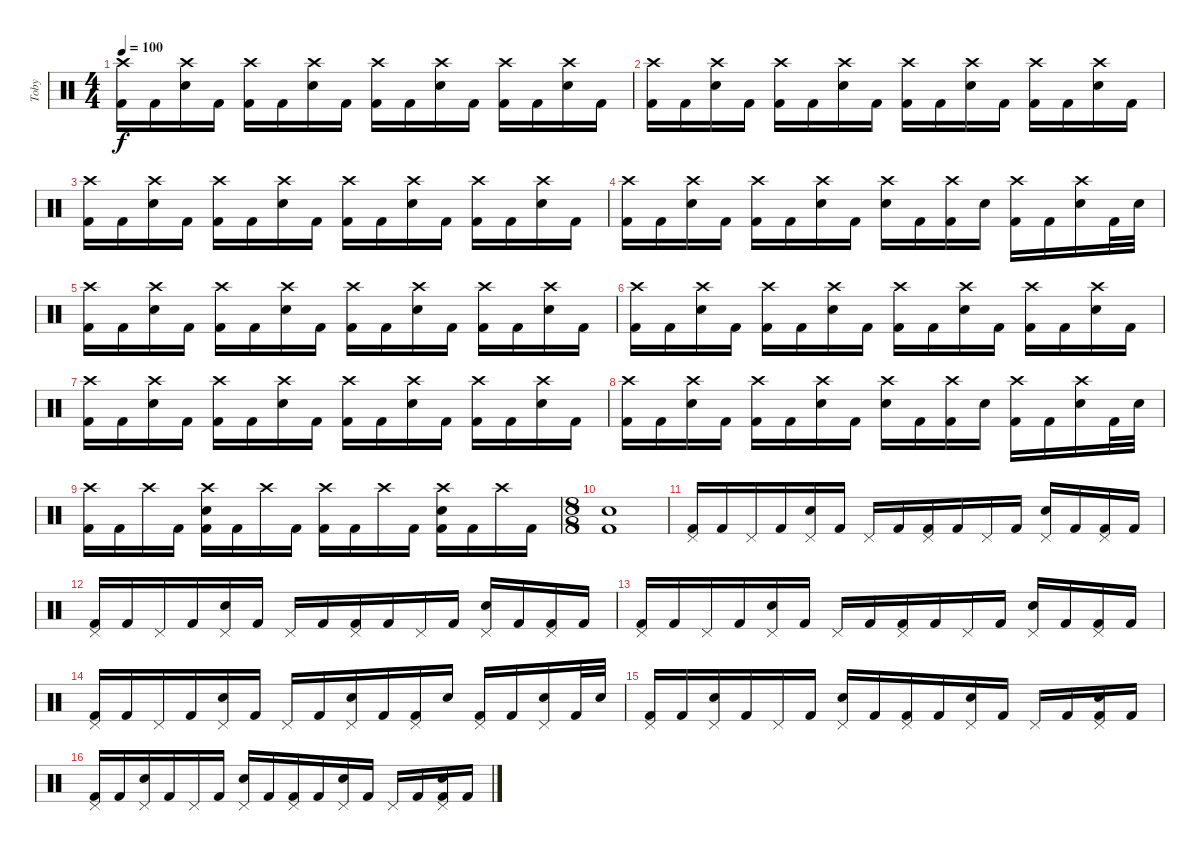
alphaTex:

\track ("Toby" "Toby") {instrument percussion}
\staff {score}
\articulation defaults
\ts (4 4)
\tempo 100
\clef neutral
\ks c
("Crash high (hit)" "Kick (hit) 2").16{dy f} "Kick (hit) 2".16 ("Crash high (hit)" "Electric Snare (hit)").16 "Kick (hit) 2".16 ("Crash high (hit)" "Kick (hit) 2").16 "Kick (hit) 2".16 ("Crash high (hit)" "Electric Snare (hit)").16 "Kick (hit) 2".16 ("Crash high (hit)" "Kick (hit) 2").16 "Kick (hit) 2".16 ("Crash high (hit)" "Electric Snare (hit)").16 "Kick (hit) 2".16 ("Crash high (hit)" "Kick (hit) 2").16 "Kick (hit) 2".16 ("Crash high (hit)" "Electric Snare (hit)").16 "Kick (hit) 2".16 |
("Crash high (hit)" "Kick (hit) 2").16 "Kick (hit) 2".16 ("Crash high (hit)" "Electric Snare (hit)").16 "Kick (hit) 2".16 ("Crash high (hit)" "Kick (hit) 2").16 "Kick (hit) 2".16 ("Crash high (hit)" "Electric Snare (hit)").16 "Kick (hit) 2".16 ("Crash high (hit)" "Kick (hit) 2").16 "Kick (hit) 2".16 ("Crash high (hit)" "Electric Snare (hit)").16 "Kick (hit) 2".16 ("Crash high (hit)" "Kick (hit) 2").16 "Kick (hit) 2".16 ("Crash high (hit)" "Electric Snare (hit)").16 "Kick (hit) 2".16 |
("Crash high (hit)" "Kick (hit) 2").16 "Kick (hit) 2".16 ("Crash high (hit)" "Electric Snare (hit)").16 "Kick (hit) 2".16 ("Crash high (hit)" "Kick (hit) 2").16 "Kick (hit) 2".16 ("Crash high (hit)" "Electric Snare (hit)").16 "Kick (hit) 2".16 ("Crash high (hit)" "Kick (hit) 2").16 "Kick (hit) 2".16 ("Crash high (hit)" "Electric Snare (hit)").16 "Kick (hit) 2".16 ("Crash high (hit)" "Kick (hit) 2").16 "Kick (hit) 2".16 ("Crash high (hit)" "Electric Snare (hit)").16 "Kick (hit) 2".16 |
("Crash high (hit)" "Kick (hit) 2").16 "Kick (hit) 2".16 ("Crash high (hit)" "Electric Snare (hit)").16 "Kick (hit) 2".16 ("Crash high (hit)" "Kick (hit) 2").16 "Kick (hit) 2".16 ("Crash high (hit)" "Electric Snare (hit)").16 "Kick (hit) 2".16 ("Crash high (hit)" "Electric Snare (hit)").16 "Kick (hit) 2".16 ("Crash high (hit)" "Kick (hit) 2").16 "Electric Snare (hit)".16 ("Crash high (hit)" "Kick (hit) 2").16 "Kick (hit) 2".16 ("Crash high (hit)" "Electric Snare (hit)").16 "Kick (hit) 2".32 "Electric Snare (hit)".32 |
("Crash high (hit)" "Kick (hit) 2").16 "Kick (hit) 2".16 ("Crash high (hit)" "Electric Snare (hit)").16 "Kick (hit) 2".16 ("Crash high (hit)" "Kick (hit) 2").16 "Kick (hit) 2".16 ("Crash high (hit)" "Electric Snare (hit)").16 "Kick (hit) 2".16 ("Crash high (hit)" "Kick (hit) 2").16 "Kick (hit) 2".16 ("Crash high (hit)" "Electric Snare (hit)").16 "Kick (hit) 2".16 ("Crash high (hit)" "Kick (hit) 2").16 "Kick (hit) 2".16 ("Crash high (hit)" "Electric Snare (hit)").16 "Kick (hit) 2".16 |
("Crash high (hit)" "Kick (hit) 2").16 "Kick (hit) 2".16 ("Crash high (hit)" "Electric Snare (hit)").16 "Kick (hit) 2".16 ("Crash high (hit)" "Kick (hit) 2").16 "Kick (hit) 2".16 ("Crash high (hit)" "Electric Snare (hit)").16 "Kick (hit) 2".16 ("Crash high (hit)" "Kick (hit) 2").16 "Kick (hit) 2".16 ("Crash high (hit)" "Electric Snare (hit)").16 "Kick (hit) 2".16 ("Crash high (hit)" "Kick (hit) 2").16 "Kick (hit) 2".16 ("Crash high (hit)" "Electric Snare (hit)").16 "Kick (hit) 2".16 |
("Crash high (hit)" "Kick (hit) 2").16 "Kick (hit) 2".16 ("Crash high (hit)" "Electric Snare (hit)").16 "Kick (hit) 2".16 ("Crash high (hit)" "Kick (hit) 2").16 "Kick (hit) 2".16 ("Crash high (hit)" "Electric Snare (hit)").16 "Kick (hit) 2".16 ("Crash high (hit)" "Kick (hit) 2").16 "Kick (hit) 2".16 ("Crash high (hit)" "Electric Snare (hit)").16 "Kick (hit) 2".16 ("Crash high (hit)" "Kick (hit) 2").16 "Kick (hit) 2".16 ("Crash high (hit)" "Electric Snare (hit)").16 "Kick (hit) 2".16 |
("Crash high (hit)" "Kick (hit) 2").16 "Kick (hit) 2".16 ("Crash high (hit)" "Electric Snare (hit)").16 "Kick (hit) 2".16 ("Crash high (hit)" "Kick (hit) 2").16 "Kick (hit) 2".16 ("Crash high (hit)" "Electric Snare (hit)").16 "Kick (hit) 2".16 ("Crash high (hit)" "Electric Snare (hit)").16 "Kick (hit) 2".16 ("Crash high (hit)" "Kick (hit) 2").16 "Electric Snare (hit)".16 ("Crash high (hit)" "Kick (hit) 2").16 "Kick (hit) 2".16 ("Crash high (hit)" "Electric Snare (hit)").16 "Kick (hit) 2".32 "Electric Snare (hit)".32 |
("Crash high (hit)" "Kick (hit) 2").16 "Kick (hit) 2".16 "Crash high (hit)".16 "Kick (hit) 2".16 ("Crash high (hit)" "Electric Snare (hit)" "Kick (hit) 2").16 "Kick (hit) 2".16 "Crash high (hit)".16 "Kick (hit) 2".16 ("Crash high (hit)" "Kick (hit) 2").16 "Kick (hit) 2".16 "Crash high (hit)".16 "Kick (hit) 2".16 ("Crash high (hit)" "Electric Snare (hit)" "Kick (hit) 2").16 "Kick (hit) 2".16 "Crash high (hit)".16 "Kick (hit) 2".16 |
\ts (8 8)
("Electric Snare (hit)" "Kick (hit) 2").1 |
("Pedal Hi-Hat (hit)" "Kick (hit) 2").16 "Kick (hit) 2".16 "Pedal Hi-Hat (hit)".16 "Kick (hit) 2".16 ("Pedal Hi-Hat (hit)" "Electric Snare (hit)").16 "Kick (hit) 2".16 "Pedal Hi-Hat (hit)".16 "Kick (hit) 2".16 ("Pedal Hi-Hat (hit)" "Kick (hit) 2").16 "Kick (hit) 2".16 "Pedal Hi-Hat (hit)".16 "Kick (hit) 2".16 ("Pedal Hi-Hat (hit)" "Electric Snare (hit)").16 "Kick (hit) 2".16 ("Pedal Hi-Hat (hit)" "Kick (hit) 2").16 "Kick (hit) 2".16 |
("Pedal Hi-Hat (hit)" "Kick (hit) 2").16 "Kick (hit) 2".16 "Pedal Hi-Hat (hit)".16 "Kick (hit) 2".16 ("Pedal Hi-Hat (hit)" "Electric Snare (hit)").16 "Kick (hit) 2".16 "Pedal Hi-Hat (hit)".16 "Kick (hit) 2".16 ("Pedal Hi-Hat (hit)" "Kick (hit) 2").16 "Kick (hit) 2".16 "Pedal Hi-Hat (hit)".16 "Kick (hit) 2".16 ("Pedal Hi-Hat (hit)" "Electric Snare (hit)").16 "Kick (hit) 2".16 ("Pedal Hi-Hat (hit)" "Kick (hit) 2").16 "Kick (hit) 2".16 |
("Pedal Hi-Hat (hit)" "Kick (hit) 2").16 "Kick (hit) 2".16 "Pedal Hi-Hat (hit)".16 "Kick (hit) 2".16 ("Pedal Hi-Hat (hit)" "Electric Snare (hit)").16 "Kick (hit) 2".16 "Pedal Hi-Hat (hit)".16 "Kick (hit) 2".16 ("Pedal Hi-Hat (hit)" "Kick (hit) 2").16 "Kick (hit) 2".16 "Pedal Hi-Hat (hit)".16 "Kick (hit) 2".16 ("Pedal Hi-Hat (hit)" "Electric Snare (hit)").16 "Kick (hit) 2".16 ("Pedal Hi-Hat (hit)" "Kick (hit) 2").16 "Kick (hit) 2".16 |
("Pedal Hi-Hat (hit)" "Kick (hit) 2").16 "Kick (hit) 2".16 "Pedal Hi-Hat (hit)".16 "Kick (hit) 2".16 ("Pedal Hi-Hat (hit)" "Electric Snare (hit)").16 "Kick (hit) 2".16 "Pedal Hi-Hat (hit)".16 "Kick (hit) 2".16 ("Pedal Hi-Hat (hit)" "Electric Snare (hit)").16 "Kick (hit) 2".16 ("Pedal Hi-Hat (hit)" "Kick (hit) 2").16 "Electric Snare (hit)".16 ("Pedal Hi-Hat (hit)" "Kick (hit) 2").16 "Kick (hit) 2".16 ("Pedal Hi-Hat (hit)" "Electric Snare (hit)").16 "Kick (hit) 2".32 "Electric Snare (hit)".32 |
("Pedal Hi-Hat (hit)" "Kick (hit) 2").16 "Kick (hit) 2".16 ("Pedal Hi-Hat (hit)" "Electric Snare (hit)").16 "Kick (hit) 2".16 "Pedal Hi-Hat (hit)".16 "Kick (hit) 2".16 ("Pedal Hi-Hat (hit)" "Electric Snare (hit)").16 "Kick (hit) 2".16 ("Pedal Hi-Hat (hit)" "Kick (hit) 2").16 "Kick (hit) 2".16 ("Pedal Hi-Hat (hit)" "Electric Snare (hit)").16 "Kick (hit) 2".16 "Pedal Hi-Hat (hit)".16 "Kick (hit) 2".16 ("Pedal Hi-Hat (hit)" "Electric Snare (hit)" "Kick (hit) 2").16 "Kick (hit) 2".16 |
("Pedal Hi-Hat (hit)" "Kick (hit) 2").16 "Kick (hit) 2".16 ("Pedal Hi-Hat (hit)" "Electric Snare (hit)").16 "Kick (hit) 2".16 "Pedal Hi-Hat (hit)".16 "Kick (hit) 2".16 ("Pedal Hi-Hat (hit)" "Electric Snare (hit)").16 "Kick (hit) 2".16 ("Pedal Hi-Hat (hit)" "Kick (hit) 2").16 "Kick (hit) 2".16 ("Pedal Hi-Hat (hit)" "Electric Snare (hit)").16 "Kick (hit) 2".16 "Pedal Hi-Hat (hit)".16 "Kick (hit) 2".16 ("Pedal Hi-Hat (hit)" "Electric Snare (hit)" "Kick (hit) 2").16 "Kick (hit) 2".16
